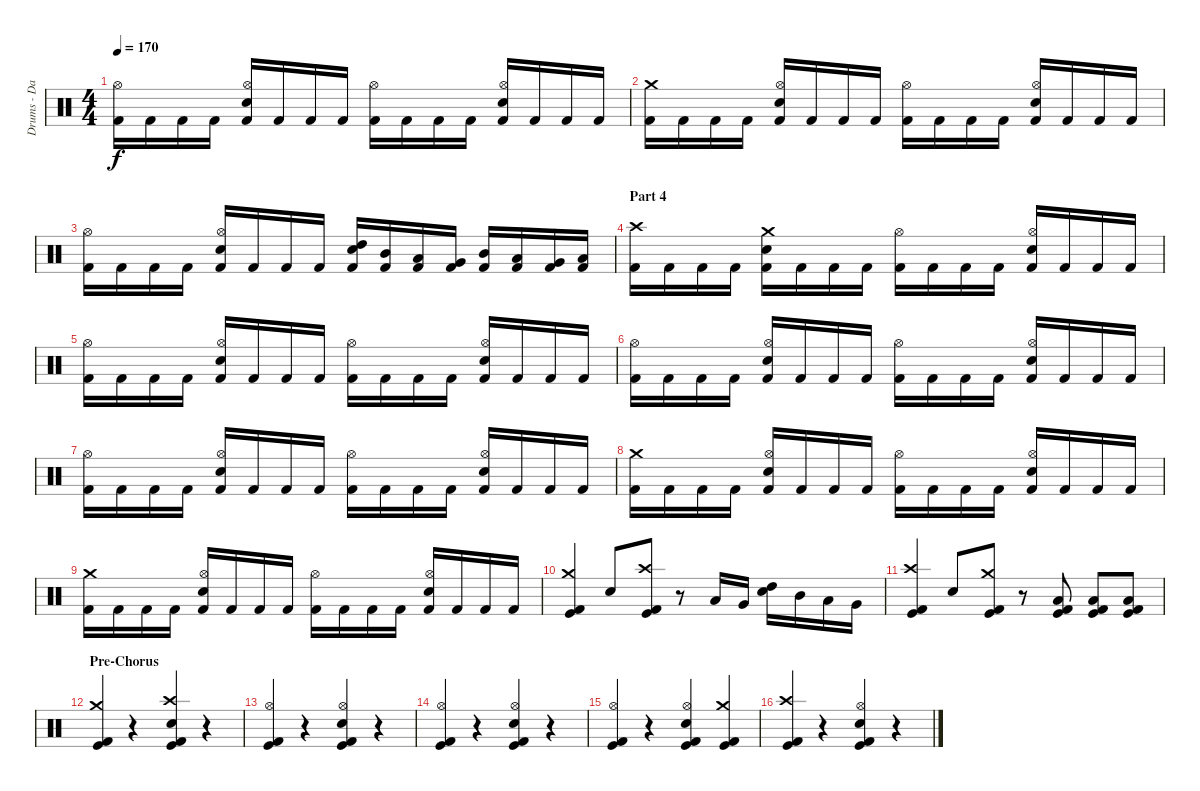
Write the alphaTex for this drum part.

\track ("Drums - Daniel Zimmermann" "Drums - Da") {instrument percussion}
\staff {score}
\articulation defaults
\ts (4 4)
\tempo 170
\clef neutral
\ks c
("Kick (hit) 2" "Hi-Hat (open)").16{dy f} "Kick (hit) 2".16 "Kick (hit) 2".16 "Kick (hit) 2".16 ("Kick (hit) 2" "Electric Snare (hit)" "Hi-Hat (open)").16 "Kick (hit) 2".16 "Kick (hit) 2".16 "Kick (hit) 2".16 ("Kick (hit) 2" "Hi-Hat (open)").16 "Kick (hit) 2".16 "Kick (hit) 2".16 "Kick (hit) 2".16 ("Kick (hit) 2" "Electric Snare (hit)" "Hi-Hat (open)").16 "Kick (hit) 2".16 "Kick (hit) 2".16 "Kick (hit) 2".16 |
("Kick (hit) 2" "Crash medium (hit)").16 "Kick (hit) 2".16 "Kick (hit) 2".16 "Kick (hit) 2".16 ("Kick (hit) 2" "Electric Snare (hit)" "Hi-Hat (open)").16 "Kick (hit) 2".16 "Kick (hit) 2".16 "Kick (hit) 2".16 ("Kick (hit) 2" "Hi-Hat (open)").16 "Kick (hit) 2".16 "Kick (hit) 2".16 "Kick (hit) 2".16 ("Kick (hit) 2" "Electric Snare (hit)" "Hi-Hat (open)").16 "Kick (hit) 2".16 "Kick (hit) 2".16 "Kick (hit) 2".16 |
("Kick (hit) 2" "Hi-Hat (open)").16 "Kick (hit) 2".16 "Kick (hit) 2".16 "Kick (hit) 2".16 ("Kick (hit) 2" "Electric Snare (hit)" "Hi-Hat (open)").16 "Kick (hit) 2".16 "Kick (hit) 2".16 "Kick (hit) 2".16 ("Kick (hit) 2" "Electric Snare (hit)" "High Tom (hit)").16 ("Kick (hit) 2" "Mid Tom (hit)").16 ("Kick (hit) 2" "Low Tom (hit)").16 ("Kick (hit) 2" "Very Low Tom (hit)").16 ("Kick (hit) 2" "Mid Tom (hit)").16 ("Kick (hit) 2" "Low Tom (hit)").16 ("Kick (hit) 2" "Very Low Tom (hit)").16 ("Kick (hit) 2" "Low Floor Tom (hit)").16 |
\section ("" "Part 4")
("Kick (hit) 2" "Crash high (hit)").16 "Kick (hit) 2".16 "Kick (hit) 2".16 "Kick (hit) 2".16 ("Kick (hit) 2" "Electric Snare (hit)" "Crash medium (hit)").16 "Kick (hit) 2".16 "Kick (hit) 2".16 "Kick (hit) 2".16 ("Kick (hit) 2" "Hi-Hat (open)").16 "Kick (hit) 2".16 "Kick (hit) 2".16 "Kick (hit) 2".16 ("Kick (hit) 2" "Electric Snare (hit)" "Hi-Hat (open)").16 "Kick (hit) 2".16 "Kick (hit) 2".16 "Kick (hit) 2".16 |
("Kick (hit) 2" "Hi-Hat (open)").16 "Kick (hit) 2".16 "Kick (hit) 2".16 "Kick (hit) 2".16 ("Kick (hit) 2" "Electric Snare (hit)" "Hi-Hat (open)").16 "Kick (hit) 2".16 "Kick (hit) 2".16 "Kick (hit) 2".16 ("Kick (hit) 2" "Hi-Hat (open)").16 "Kick (hit) 2".16 "Kick (hit) 2".16 "Kick (hit) 2".16 ("Kick (hit) 2" "Electric Snare (hit)" "Hi-Hat (open)").16 "Kick (hit) 2".16 "Kick (hit) 2".16 "Kick (hit) 2".16 |
("Kick (hit) 2" "Hi-Hat (open)").16 "Kick (hit) 2".16 "Kick (hit) 2".16 "Kick (hit) 2".16 ("Kick (hit) 2" "Electric Snare (hit)" "Hi-Hat (open)").16 "Kick (hit) 2".16 "Kick (hit) 2".16 "Kick (hit) 2".16 ("Kick (hit) 2" "Hi-Hat (open)").16 "Kick (hit) 2".16 "Kick (hit) 2".16 "Kick (hit) 2".16 ("Kick (hit) 2" "Electric Snare (hit)" "Hi-Hat (open)").16 "Kick (hit) 2".16 "Kick (hit) 2".16 "Kick (hit) 2".16 |
("Kick (hit) 2" "Hi-Hat (open)").16 "Kick (hit) 2".16 "Kick (hit) 2".16 "Kick (hit) 2".16 ("Kick (hit) 2" "Electric Snare (hit)" "Hi-Hat (open)").16 "Kick (hit) 2".16 "Kick (hit) 2".16 "Kick (hit) 2".16 ("Kick (hit) 2" "Hi-Hat (open)").16 "Kick (hit) 2".16 "Kick (hit) 2".16 "Kick (hit) 2".16 ("Kick (hit) 2" "Electric Snare (hit)" "Hi-Hat (open)").16 "Kick (hit) 2".16 "Kick (hit) 2".16 "Kick (hit) 2".16 |
("Kick (hit) 2" "Crash medium (hit)").16 "Kick (hit) 2".16 "Kick (hit) 2".16 "Kick (hit) 2".16 ("Kick (hit) 2" "Electric Snare (hit)" "Hi-Hat (open)").16 "Kick (hit) 2".16 "Kick (hit) 2".16 "Kick (hit) 2".16 ("Kick (hit) 2" "Hi-Hat (open)").16 "Kick (hit) 2".16 "Kick (hit) 2".16 "Kick (hit) 2".16 ("Kick (hit) 2" "Electric Snare (hit)" "Hi-Hat (open)").16 "Kick (hit) 2".16 "Kick (hit) 2".16 "Kick (hit) 2".16 |
("Kick (hit) 2" "Crash medium (hit)").16 "Kick (hit) 2".16 "Kick (hit) 2".16 "Kick (hit) 2".16 ("Kick (hit) 2" "Electric Snare (hit)" "Hi-Hat (open)").16 "Kick (hit) 2".16 "Kick (hit) 2".16 "Kick (hit) 2".16 ("Kick (hit) 2" "Hi-Hat (open)").16 "Kick (hit) 2".16 "Kick (hit) 2".16 "Kick (hit) 2".16 ("Kick (hit) 2" "Electric Snare (hit)" "Hi-Hat (open)").16 "Kick (hit) 2".16 "Kick (hit) 2".16 "Kick (hit) 2".16 |
("Kick (hit) 2" "Kick (hit)" "Crash medium (hit)").4 "Electric Snare (hit)".8 ("Kick (hit) 2" "Kick (hit)" "Crash high (hit)").8 r.8 "Low Tom (hit)".16 "Very Low Tom (hit)".16 ("High Tom (hit)" "Electric Snare (hit)").16 "Mid Tom (hit)".16 "Low Tom (hit)".16 "Very Low Tom (hit)".16 |
("Kick (hit) 2" "Kick (hit)" "Crash high (hit)").4 "Electric Snare (hit)".8 ("Kick (hit) 2" "Kick (hit)" "Crash medium (hit)").8 r.8 ("Kick (hit) 2" "Kick (hit)" "Low Tom (hit)").8 ("Kick (hit) 2" "Kick (hit)" "Low Tom (hit)").8 ("Kick (hit) 2" "Kick (hit)" "Low Tom (hit)").8 |
\section ("" "Pre-Chorus")
("Kick (hit) 2" "Kick (hit)" "Crash medium (hit)").4 r.4 ("Kick (hit) 2" "Kick (hit)" "Electric Snare (hit)" "Crash high (hit)").4 r.4 |
("Kick (hit) 2" "Kick (hit)" "Hi-Hat (open)").4 r.4 ("Kick (hit) 2" "Kick (hit)" "Electric Snare (hit)" "Hi-Hat (open)").4 r.4 |
("Kick (hit) 2" "Kick (hit)" "Hi-Hat (open)").4 r.4 ("Kick (hit) 2" "Kick (hit)" "Electric Snare (hit)" "Hi-Hat (open)").4 r.4 |
("Kick (hit) 2" "Kick (hit)" "Hi-Hat (open)").4 r.4 ("Kick (hit) 2" "Kick (hit)" "Electric Snare (hit)" "Hi-Hat (open)").4 ("Kick (hit) 2" "Kick (hit)" "Crash medium (hit)").4 |
("Kick (hit) 2" "Kick (hit)" "Crash high (hit)").4 r.4 ("Kick (hit) 2" "Kick (hit)" "Electric Snare (hit)" "Hi-Hat (open)").4 r.4
